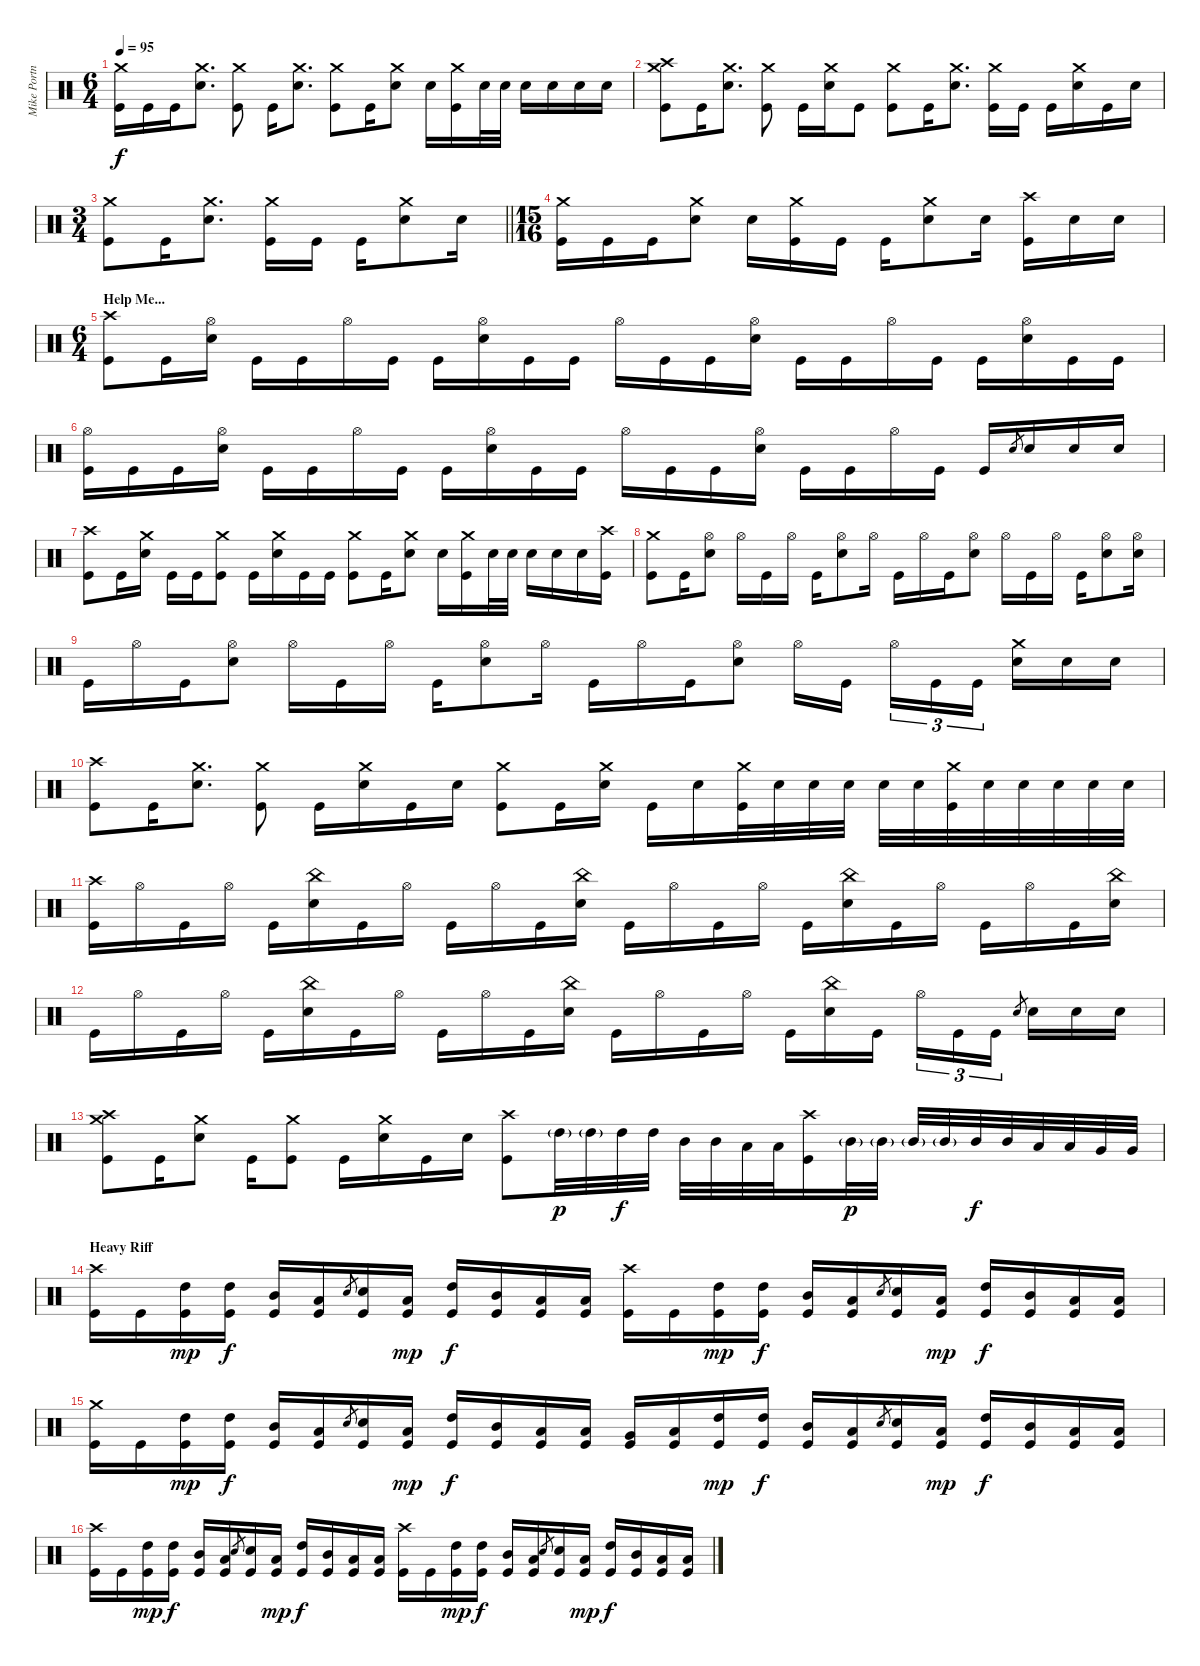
\track ("Mike Portnoy" "Mike Portn") {instrument percussion}
\staff {score}
\articulation defaults
\ts (6 4)
\tempo 95
\clef neutral
\ks c
("Crash medium (hit)" "Kick (hit)").16{dy f} "Kick (hit)".16 "Kick (hit)".16 ("Crash medium (hit)" "Electric Snare (hit)").8{d} ("Crash medium (hit)" "Kick (hit)").8 "Kick (hit)".16 ("Crash medium (hit)" "Electric Snare (hit)").8{d} ("Crash medium (hit)" "Kick (hit)").8 "Kick (hit)".16 ("Crash medium (hit)" "Electric Snare (hit)").8 "Electric Snare (hit)".16 ("Crash medium (hit)" "Kick (hit)").16 "Electric Snare (hit)".32 "Electric Snare (hit)".32 "Electric Snare (hit)".16 "Electric Snare (hit)".16 "Electric Snare (hit)".16 "Electric Snare (hit)".16 |
("Crash high (hit)" "Crash medium (hit)" "Kick (hit)").8 "Kick (hit)".16 ("Crash medium (hit)" "Electric Snare (hit)").8{d} ("Crash medium (hit)" "Kick (hit)").8 "Kick (hit)".16 ("Crash medium (hit)" "Electric Snare (hit)").16 "Kick (hit)".8 ("Crash medium (hit)" "Kick (hit)").8 "Kick (hit)".16 ("Crash medium (hit)" "Electric Snare (hit)").8{d} ("Crash medium (hit)" "Kick (hit)").16 "Kick (hit)".16 "Kick (hit)".16 ("Crash medium (hit)" "Electric Snare (hit)").16 "Kick (hit)".16 "Electric Snare (hit)".16 |
\ts (3 4)
\barLineRight lightlight
("Crash medium (hit)" "Kick (hit)").8 "Kick (hit)".16 ("Crash medium (hit)" "Electric Snare (hit)").8{d} ("Crash medium (hit)" "Kick (hit)").16 "Kick (hit)".16 "Kick (hit)".16 ("Crash medium (hit)" "Electric Snare (hit)").8 "Electric Snare (hit)".16 |
\ts (15 16)
("Crash medium (hit)" "Kick (hit)").16 "Kick (hit)".16 "Kick (hit)".16 ("Crash medium (hit)" "Electric Snare (hit)").8 "Electric Snare (hit)".16 ("Crash medium (hit)" "Kick (hit)").16 "Kick (hit)".16 "Kick (hit)".16 ("Crash medium (hit)" "Electric Snare (hit)").8 "Electric Snare (hit)".16 ("Crash high (hit)" "Kick (hit)").16 "Electric Snare (hit)".16 "Electric Snare (hit)".16 |
\ts (6 4)
\section ("" "Help Me...")
("Crash high (hit)" "Kick (hit)").8 "Kick (hit)".16 ("Hi-Hat (open)" "Electric Snare (hit)").16 "Kick (hit)".16 "Kick (hit)".16 "Hi-Hat (open)".16 "Kick (hit)".16 "Kick (hit)".16 ("Hi-Hat (open)" "Electric Snare (hit)").16 "Kick (hit)".16 "Kick (hit)".16 "Hi-Hat (open)".16 "Kick (hit)".16 "Kick (hit)".16 ("Hi-Hat (open)" "Electric Snare (hit)").16 "Kick (hit)".16 "Kick (hit)".16 "Hi-Hat (open)".16 "Kick (hit)".16 "Kick (hit)".16 ("Hi-Hat (open)" "Electric Snare (hit)").16 "Kick (hit)".16 "Kick (hit)".16 |
("Hi-Hat (open)" "Kick (hit)").16 "Kick (hit)".16 "Kick (hit)".16 ("Hi-Hat (open)" "Electric Snare (hit)").16 "Kick (hit)".16 "Kick (hit)".16 "Hi-Hat (open)".16 "Kick (hit)".16 "Kick (hit)".16 ("Hi-Hat (open)" "Electric Snare (hit)").16 "Kick (hit)".16 "Kick (hit)".16 "Hi-Hat (open)".16 "Kick (hit)".16 "Kick (hit)".16 ("Hi-Hat (open)" "Electric Snare (hit)").16 "Kick (hit)".16 "Kick (hit)".16 "Hi-Hat (open)".16 "Kick (hit)".16 "Kick (hit)".16 "Electric Snare (hit)".8{gr} "Electric Snare (hit)".16 "Electric Snare (hit)".16 "Electric Snare (hit)".16 |
("Crash high (hit)" "Kick (hit)").8 "Kick (hit)".16 ("Crash medium (hit)" "Electric Snare (hit)").16 "Kick (hit)".16 "Kick (hit)".16 ("Crash medium (hit)" "Kick (hit)").8 "Kick (hit)".16 ("Crash medium (hit)" "Electric Snare (hit)").16 "Kick (hit)".16 "Kick (hit)".16 ("Crash medium (hit)" "Kick (hit)").8 "Kick (hit)".16 ("Crash medium (hit)" "Electric Snare (hit)").8 "Electric Snare (hit)".16 ("Crash medium (hit)" "Kick (hit)").16 "Electric Snare (hit)".32 "Electric Snare (hit)".32 "Electric Snare (hit)".16 "Electric Snare (hit)".16 "Electric Snare (hit)".16 ("Crash high (hit)" "Kick (hit)").16 |
("Crash medium (hit)" "Kick (hit)").8 "Kick (hit)".16 ("Hi-Hat (open)" "Electric Snare (hit)").8 "Hi-Hat (open)".16 "Kick (hit)".16 "Hi-Hat (open)".16 "Kick (hit)".16 ("Hi-Hat (open)" "Electric Snare (hit)").8 "Hi-Hat (open)".16 "Kick (hit)".16 "Hi-Hat (open)".16 "Kick (hit)".16 ("Hi-Hat (open)" "Electric Snare (hit)").8 "Hi-Hat (open)".16 "Kick (hit)".16 "Hi-Hat (open)".16 "Kick (hit)".16 ("Hi-Hat (open)" "Electric Snare (hit)").8 ("Hi-Hat (open)" "Electric Snare (hit)").16 |
"Kick (hit)".16 "Hi-Hat (open)".16 "Kick (hit)".16 ("Hi-Hat (open)" "Electric Snare (hit)").8 "Hi-Hat (open)".16 "Kick (hit)".16 "Hi-Hat (open)".16 "Kick (hit)".16 ("Hi-Hat (open)" "Electric Snare (hit)").8 "Hi-Hat (open)".16 "Kick (hit)".16 "Hi-Hat (open)".16 "Kick (hit)".16 ("Hi-Hat (open)" "Electric Snare (hit)").8 "Hi-Hat (open)".16 "Kick (hit)".16 "Hi-Hat (open)".16{tu (3 2)} "Kick (hit)".16{tu (3 2)} "Kick (hit)".16{tu (3 2)} ("Crash medium (hit)" "Electric Snare (hit)").16 "Electric Snare (hit)".16 "Electric Snare (hit)".16 |
("Crash high (hit)" "Kick (hit)").8 "Kick (hit)".16 ("Crash medium (hit)" "Electric Snare (hit)").8{d} ("Crash medium (hit)" "Kick (hit)").8 "Kick (hit)".16 ("Crash medium (hit)" "Electric Snare (hit)").16 "Kick (hit)".16 "Electric Snare (hit)".16 ("Crash medium (hit)" "Kick (hit)").8 "Kick (hit)".16 ("Crash medium (hit)" "Electric Snare (hit)").16 "Kick (hit)".16 "Electric Snare (hit)".16 ("Crash medium (hit)" "Kick (hit)").32 "Electric Snare (hit)".32 "Electric Snare (hit)".32 "Electric Snare (hit)".32 "Electric Snare (hit)".32 "Electric Snare (hit)".32 ("Crash medium (hit)" "Kick (hit)").32 "Electric Snare (hit)".32 "Electric Snare (hit)".32 "Electric Snare (hit)".32 "Electric Snare (hit)".32 "Electric Snare (hit)".32 |
("Crash high (hit)" "Kick (hit)").16 "Hi-Hat (open)".16 "Kick (hit)".16 "Hi-Hat (open)".16 "Kick (hit)".16 ("China (hit)" "Electric Snare (hit)").16 "Kick (hit)".16 "Hi-Hat (open)".16 "Kick (hit)".16 "Hi-Hat (open)".16 "Kick (hit)".16 ("China (hit)" "Electric Snare (hit)").16 "Kick (hit)".16 "Hi-Hat (open)".16 "Kick (hit)".16 "Hi-Hat (open)".16 "Kick (hit)".16 ("China (hit)" "Electric Snare (hit)").16 "Kick (hit)".16 "Hi-Hat (open)".16 "Kick (hit)".16 "Hi-Hat (open)".16 "Kick (hit)".16 ("China (hit)" "Electric Snare (hit)").16 |
"Kick (hit)".16 "Hi-Hat (open)".16 "Kick (hit)".16 "Hi-Hat (open)".16 "Kick (hit)".16 ("China (hit)" "Electric Snare (hit)").16 "Kick (hit)".16 "Hi-Hat (open)".16 "Kick (hit)".16 "Hi-Hat (open)".16 "Kick (hit)".16 ("China (hit)" "Electric Snare (hit)").16 "Kick (hit)".16 "Hi-Hat (open)".16 "Kick (hit)".16 "Hi-Hat (open)".16 "Kick (hit)".16 ("China (hit)" "Electric Snare (hit)").16 "Kick (hit)".16 "Hi-Hat (open)".16{tu (3 2)} "Kick (hit)".16{tu (3 2)} "Kick (hit)".16{tu (3 2)} "Electric Snare (hit)".8{gr} "Electric Snare (hit)".16 "Electric Snare (hit)".16 "Electric Snare (hit)".16 |
("Crash high (hit)" "Crash medium (hit)" "Kick (hit)").8 "Kick (hit)".16 ("Crash medium (hit)" "Electric Snare (hit)").8 "Kick (hit)".16 ("Crash medium (hit)" "Kick (hit)").8 "Kick (hit)".16 ("Crash medium (hit)" "Electric Snare (hit)").16 "Kick (hit)".16 "Electric Snare (hit)".16 ("Crash high (hit)" "Kick (hit)").8 "High Tom (hit)"{g}.32{dy p} "High Tom (hit)"{g}.32 "High Tom (hit)".32{dy f} "High Tom (hit)".32 "Mid Tom (hit)".32 "Mid Tom (hit)".32 "Low Tom (hit)".32 "Low Tom (hit)".32 ("Crash high (hit)" "Kick (hit)").16 "Mid Tom (hit)"{g}.32{dy p} "Mid Tom (hit)"{g}.32 "Mid Tom (hit)"{g}.32 "Mid Tom (hit)"{g}.32 "Mid Tom (hit)".32{dy f} "Mid Tom (hit)".32 "Low Tom (hit)".32 "Low Tom (hit)".32 "Very Low Tom (hit)".32 "Very Low Tom (hit)".32 |
\section ("" "Heavy Riff")
("Crash high (hit)" "Kick (hit)").16 "Kick (hit)".16 ("High Tom (hit)" "Kick (hit)").16{dy mp} ("High Tom (hit)" "Kick (hit)").16{dy f} ("Mid Tom (hit)" "Kick (hit)").16 ("Low Tom (hit)" "Kick (hit)").16 "Electric Snare (hit)".8{gr} ("Electric Snare (hit)" "Kick (hit)").16 ("Low Tom (hit)" "Kick (hit)").16{dy mp} ("High Tom (hit)" "Kick (hit)").16{dy f} ("Mid Tom (hit)" "Kick (hit)").16 ("Low Tom (hit)" "Kick (hit)").16 ("Low Tom (hit)" "Kick (hit)").16 ("Crash high (hit)" "Kick (hit)").16 "Kick (hit)".16 ("High Tom (hit)" "Kick (hit)").16{dy mp} ("High Tom (hit)" "Kick (hit)").16{dy f} ("Mid Tom (hit)" "Kick (hit)").16 ("Low Tom (hit)" "Kick (hit)").16 "Electric Snare (hit)".8{gr} ("Electric Snare (hit)" "Kick (hit)").16 ("Low Tom (hit)" "Kick (hit)").16{dy mp} ("High Tom (hit)" "Kick (hit)").16{dy f} ("Mid Tom (hit)" "Kick (hit)").16 ("Low Tom (hit)" "Kick (hit)").16 ("Low Tom (hit)" "Kick (hit)").16 |
("Crash medium (hit)" "Kick (hit)").16 "Kick (hit)".16 ("High Tom (hit)" "Kick (hit)").16{dy mp} ("High Tom (hit)" "Kick (hit)").16{dy f} ("Mid Tom (hit)" "Kick (hit)").16 ("Low Tom (hit)" "Kick (hit)").16 "Electric Snare (hit)".8{gr} ("Electric Snare (hit)" "Kick (hit)").16 ("Low Tom (hit)" "Kick (hit)").16{dy mp} ("High Tom (hit)" "Kick (hit)").16{dy f} ("Mid Tom (hit)" "Kick (hit)").16 ("Low Tom (hit)" "Kick (hit)").16 ("Low Tom (hit)" "Kick (hit)").16 ("Very Low Tom (hit)" "Kick (hit)").16 ("Low Tom (hit)" "Kick (hit)").16 ("High Tom (hit)" "Kick (hit)").16{dy mp} ("High Tom (hit)" "Kick (hit)").16{dy f} ("Mid Tom (hit)" "Kick (hit)").16 ("Low Tom (hit)" "Kick (hit)").16 "Electric Snare (hit)".8{gr} ("Electric Snare (hit)" "Kick (hit)").16 ("Low Tom (hit)" "Kick (hit)").16{dy mp} ("High Tom (hit)" "Kick (hit)").16{dy f} ("Mid Tom (hit)" "Kick (hit)").16 ("Low Tom (hit)" "Kick (hit)").16 ("Low Tom (hit)" "Kick (hit)").16 |
("Crash high (hit)" "Kick (hit)").16 "Kick (hit)".16 ("High Tom (hit)" "Kick (hit)").16{dy mp} ("High Tom (hit)" "Kick (hit)").16{dy f} ("Mid Tom (hit)" "Kick (hit)").16 ("Low Tom (hit)" "Kick (hit)").16 "Electric Snare (hit)".8{gr} ("Electric Snare (hit)" "Kick (hit)").16 ("Low Tom (hit)" "Kick (hit)").16{dy mp} ("High Tom (hit)" "Kick (hit)").16{dy f} ("Mid Tom (hit)" "Kick (hit)").16 ("Low Tom (hit)" "Kick (hit)").16 ("Low Tom (hit)" "Kick (hit)").16 ("Crash high (hit)" "Kick (hit)").16 "Kick (hit)".16 ("High Tom (hit)" "Kick (hit)").16{dy mp} ("High Tom (hit)" "Kick (hit)").16{dy f} ("Mid Tom (hit)" "Kick (hit)").16 ("Low Tom (hit)" "Kick (hit)").16 "Electric Snare (hit)".8{gr} ("Electric Snare (hit)" "Kick (hit)").16 ("Low Tom (hit)" "Kick (hit)").16{dy mp} ("High Tom (hit)" "Kick (hit)").16{dy f} ("Mid Tom (hit)" "Kick (hit)").16 ("Low Tom (hit)" "Kick (hit)").16 ("Low Tom (hit)" "Kick (hit)").16
